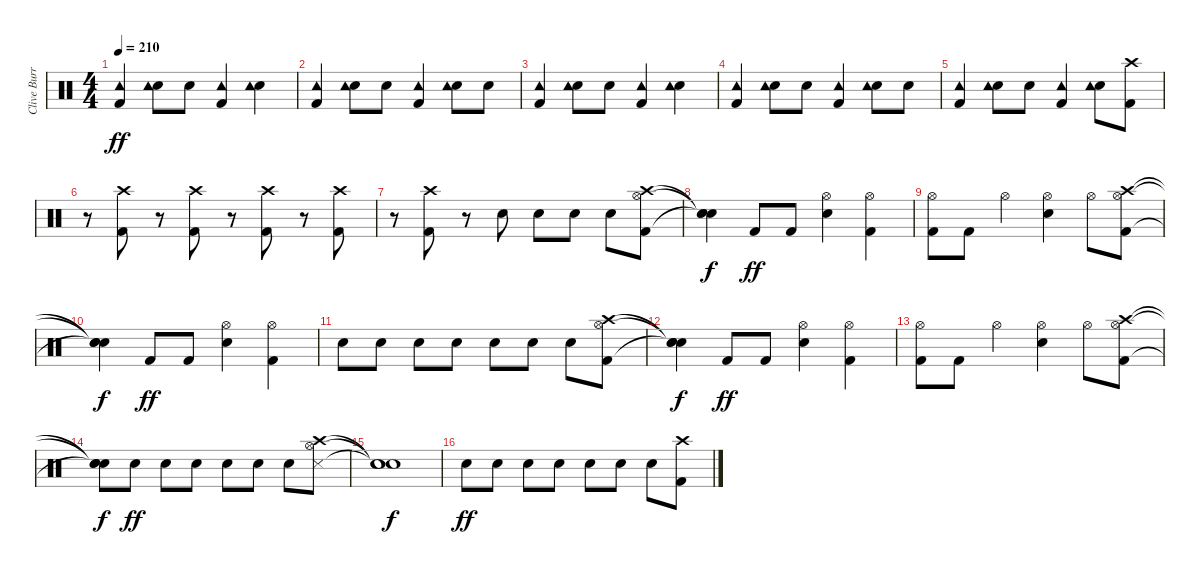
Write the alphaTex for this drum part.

\track ("Clive Burr" "Clive Burr") {instrument percussion}
\staff {score}
\articulation defaults
\ts (4 4)
\tempo 210
\clef neutral
\ks c
("Kick (hit) 2" "Tambourine (hit)").4{dy ff} ("Snare (hit) 2" "Tambourine (hit)").8 "Snare (hit) 2".8 ("Kick (hit) 2" "Tambourine (hit)").4 ("Snare (hit) 2" "Tambourine (hit)").4 |
("Kick (hit) 2" "Tambourine (hit)").4 ("Snare (hit) 2" "Tambourine (hit)").8 "Snare (hit) 2".8 ("Kick (hit) 2" "Tambourine (hit)").4 ("Snare (hit) 2" "Tambourine (hit)").8 "Snare (hit) 2".8 |
("Kick (hit) 2" "Tambourine (hit)").4 ("Snare (hit) 2" "Tambourine (hit)").8 "Snare (hit) 2".8 ("Kick (hit) 2" "Tambourine (hit)").4 ("Snare (hit) 2" "Tambourine (hit)").4 |
("Kick (hit) 2" "Tambourine (hit)").4 ("Snare (hit) 2" "Tambourine (hit)").8 "Snare (hit) 2".8 ("Kick (hit) 2" "Tambourine (hit)").4 ("Snare (hit) 2" "Tambourine (hit)").8 "Snare (hit) 2".8 |
("Kick (hit) 2" "Tambourine (hit)").4 ("Snare (hit) 2" "Tambourine (hit)").8 "Snare (hit) 2".8 ("Kick (hit) 2" "Tambourine (hit)").4 ("Snare (hit) 2" "Tambourine (hit)").8 ("Kick (hit) 2" "Crash high (hit)").8 |
r.8 ("Kick (hit) 2" "Crash high (hit)").8 r.8 ("Kick (hit) 2" "Crash high (hit)").8 r.8 ("Kick (hit) 2" "Crash high (hit)").8 r.8 ("Kick (hit) 2" "Crash high (hit)").8 |
r.8 ("Kick (hit) 2" "Crash high (hit)").8 r.8 "Snare (hit) 2".8 "Snare (hit) 2".8 "Snare (hit) 2".8 "Snare (hit) 2".8 ("Kick (hit) 2" "Hi-Hat (open)" "Crash high (hit)").8 |
("Snare (hit)"{t} "Snare (hit)"{t} "Snare (hit)"{t}).4{dy f} "Kick (hit) 2".8{dy ff} "Kick (hit) 2".8 ("Snare (hit) 2" "Hi-Hat (open)").4 ("Kick (hit) 2" "Hi-Hat (open)").4 |
("Kick (hit) 2" "Hi-Hat (open)").8 "Kick (hit) 2".8 "Hi-Hat (open)".4 ("Snare (hit) 2" "Hi-Hat (open)").4 "Hi-Hat (open)".8 ("Kick (hit) 2" "Hi-Hat (open)" "Crash high (hit)").8 |
("Snare (hit)"{t} "Snare (hit)"{t} "Snare (hit)"{t}).4{dy f} "Kick (hit) 2".8{dy ff} "Kick (hit) 2".8 ("Snare (hit) 2" "Hi-Hat (open)").4 ("Kick (hit) 2" "Hi-Hat (open)").4 |
"Snare (hit) 2".8 "Snare (hit) 2".8 "Snare (hit) 2".8 "Snare (hit) 2".8 "Snare (hit) 2".8 "Snare (hit) 2".8 "Snare (hit) 2".8 ("Kick (hit) 2" "Hi-Hat (open)" "Crash high (hit)").8 |
("Snare (hit)"{t} "Snare (hit)"{t} "Snare (hit)"{t}).4{dy f} "Kick (hit) 2".8{dy ff} "Kick (hit) 2".8 ("Snare (hit) 2" "Hi-Hat (open)").4 ("Kick (hit) 2" "Hi-Hat (open)").4 |
("Kick (hit) 2" "Hi-Hat (open)").8 "Kick (hit) 2".8 "Hi-Hat (open)".4 ("Snare (hit) 2" "Hi-Hat (open)").4 "Hi-Hat (open)".8 ("Kick (hit) 2" "Hi-Hat (open)" "Crash high (hit)").8 |
("Snare (hit)"{t} "Snare (hit)"{t} "Snare (hit)"{t}).8{dy f} "Snare (hit) 2".8{dy ff} "Snare (hit) 2".8 "Snare (hit) 2".8 "Snare (hit) 2".8 "Snare (hit) 2".8 "Snare (hit) 2".8 ("Snare (side stick) 3" "Hi-Hat (open)" "Crash high (hit)").8 |
("Snare (hit)"{t} "Snare (hit)"{t} "Snare (hit)"{t}).1{dy f} |
"Snare (hit) 2".8{dy ff} "Snare (hit) 2".8 "Snare (hit) 2".8 "Snare (hit) 2".8 "Snare (hit) 2".8 "Snare (hit) 2".8 "Snare (hit) 2".8 ("Kick (hit) 2" "Crash high (hit)").8
